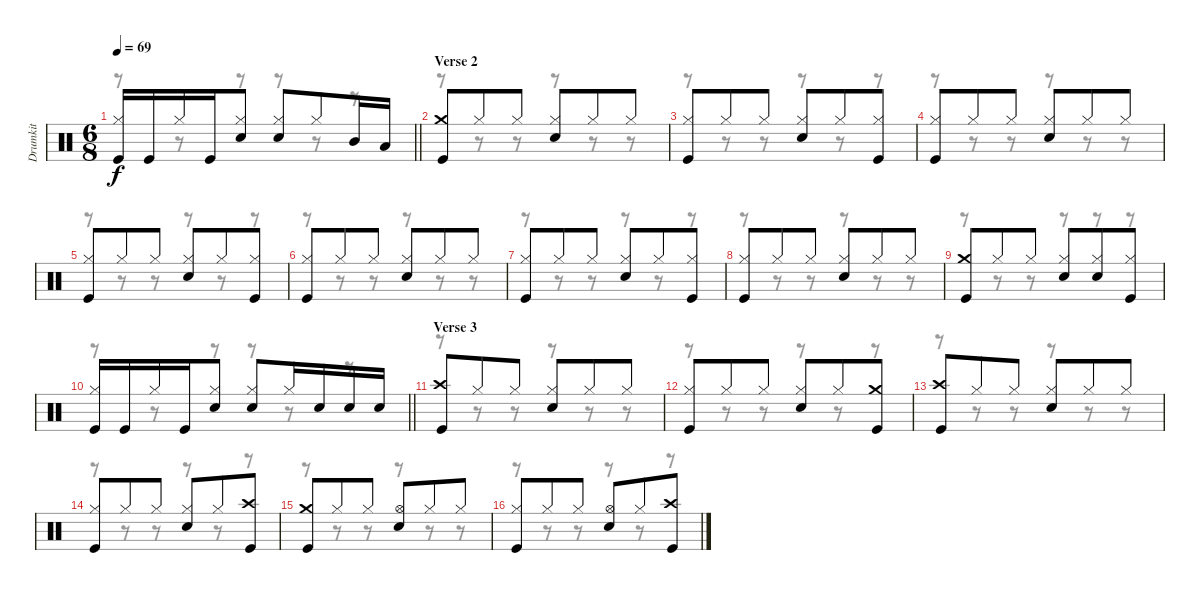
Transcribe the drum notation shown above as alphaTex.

\track ("Drumkit" "Drumkit") {instrument percussion}
\staff {score}
\articulation defaults
\voice
\ts (6 8)
\tempo 69
\clef neutral
\barLineRight lightlight
\ks c
("Hi-Hat (closed)" "Kick (hit)").16{dy f} "Kick (hit)".16 "Hi-Hat (closed)".16 "Kick (hit)".16 ("Hi-Hat (closed)" "Snare (hit) 2").8 ("Hi-Hat (closed)" "Snare (hit) 2").8 "Hi-Hat (closed)".8 "Mid Tom (hit)".16 "Low Tom (hit)".16 |
\section ("" "Verse 2")
("Crash medium (hit)" "Kick (hit)").8 "Hi-Hat (closed)".8 "Hi-Hat (closed)".8 ("Hi-Hat (closed)" "Snare (hit) 2").8 "Hi-Hat (closed)".8 "Hi-Hat (closed)".8 |
("Hi-Hat (closed)" "Kick (hit)").8 "Hi-Hat (closed)".8 "Hi-Hat (closed)".8 ("Hi-Hat (closed)" "Snare (hit) 2").8 "Hi-Hat (closed)".8 ("Hi-Hat (closed)" "Kick (hit)").8 |
("Hi-Hat (closed)" "Kick (hit)").8 "Hi-Hat (closed)".8 "Hi-Hat (closed)".8 ("Hi-Hat (closed)" "Snare (hit) 2").8 "Hi-Hat (closed)".8 "Hi-Hat (closed)".8 |
("Hi-Hat (closed)" "Kick (hit)").8 "Hi-Hat (closed)".8 "Hi-Hat (closed)".8 ("Hi-Hat (closed)" "Snare (hit) 2").8 "Hi-Hat (closed)".8 ("Hi-Hat (closed)" "Kick (hit)").8 |
("Hi-Hat (closed)" "Kick (hit)").8 "Hi-Hat (closed)".8 "Hi-Hat (closed)".8 ("Hi-Hat (closed)" "Snare (hit) 2").8 "Hi-Hat (closed)".8 "Hi-Hat (closed)".8 |
("Hi-Hat (closed)" "Kick (hit)").8 "Hi-Hat (closed)".8 "Hi-Hat (closed)".8 ("Hi-Hat (closed)" "Snare (hit) 2").8 "Hi-Hat (closed)".8 ("Hi-Hat (closed)" "Kick (hit)").8 |
("Hi-Hat (closed)" "Kick (hit)").8 "Hi-Hat (closed)".8 "Hi-Hat (closed)".8 ("Hi-Hat (closed)" "Snare (hit) 2").8 "Hi-Hat (closed)".8 "Hi-Hat (closed)".8 |
("Crash medium (hit)" "Kick (hit)").8 "Hi-Hat (closed)".8 "Hi-Hat (closed)".8 ("Hi-Hat (closed)" "Snare (hit) 2").8 ("Hi-Hat (closed)" "Snare (hit) 2").8 ("Hi-Hat (closed)" "Kick (hit)").8 |
\barLineRight lightlight
("Hi-Hat (closed)" "Kick (hit)").16 "Kick (hit)".16 "Hi-Hat (closed)".16 "Kick (hit)".16 ("Hi-Hat (closed)" "Snare (hit) 2").8 ("Hi-Hat (closed)" "Snare (hit) 2").8 "Hi-Hat (closed)".16 "Snare (hit) 2".16 "Snare (hit) 2".16 "Snare (hit) 2".16 |
\section ("" "Verse 3")
("Crash high (hit)" "Kick (hit)").8 "Hi-Hat (closed)".8 "Hi-Hat (closed)".8 ("Hi-Hat (closed)" "Snare (hit) 2").8 "Hi-Hat (closed)".8 "Hi-Hat (closed)".8 |
("Hi-Hat (closed)" "Kick (hit)").8 "Hi-Hat (closed)".8 "Hi-Hat (closed)".8 ("Hi-Hat (closed)" "Snare (hit) 2").8 "Hi-Hat (closed)".8 ("Crash medium (hit)" "Kick (hit)").8 |
("Crash high (hit)" "Kick (hit)").8 "Hi-Hat (closed)".8 "Hi-Hat (closed)".8 ("Hi-Hat (closed)" "Snare (hit) 2").8 "Hi-Hat (closed)".8 "Hi-Hat (closed)".8 |
("Hi-Hat (closed)" "Kick (hit)").8 "Hi-Hat (closed)".8 "Hi-Hat (closed)".8 ("Hi-Hat (closed)" "Snare (hit) 2").8 "Hi-Hat (closed)".8 ("Crash high (hit)" "Kick (hit)").8 |
("Crash medium (hit)" "Kick (hit)").8 "Hi-Hat (closed)".8 "Hi-Hat (closed)".8 ("Hi-Hat (open)" "Snare (hit) 2").8 "Hi-Hat (closed)".8 "Hi-Hat (closed)".8 |
("Hi-Hat (closed)" "Kick (hit)").8 "Hi-Hat (closed)".8 "Hi-Hat (closed)".8 ("Hi-Hat (open)" "Snare (hit) 2").8 "Hi-Hat (closed)".8 ("Crash high (hit)" "Kick (hit)").8
\voice
\clef neutral
\ottava regular
\simile none
\barLineRight lightlight
\ks c
r.8{dy f} r.8 r.8 r.8 r.8 r.8 |
r.8 r.8 r.8 r.8 r.8 r.8 |
r.8 r.8 r.8 r.8 r.8 r.8 |
r.8 r.8 r.8 r.8 r.8 r.8 |
r.8 r.8 r.8 r.8 r.8 r.8 |
r.8 r.8 r.8 r.8 r.8 r.8 |
r.8 r.8 r.8 r.8 r.8 r.8 |
r.8 r.8 r.8 r.8 r.8 r.8 |
r.8 r.8 r.8 r.8 r.8 r.8 |
\barLineRight lightlight
r.8 r.8 r.8 r.8 r.8 r.8 |
r.8 r.8 r.8 r.8 r.8 r.8 |
r.8 r.8 r.8 r.8 r.8 r.8 |
r.8 r.8 r.8 r.8 r.8 r.8 |
r.8 r.8 r.8 r.8 r.8 r.8 |
r.8 r.8 r.8 r.8 r.8 r.8 |
r.8 r.8 r.8 r.8 r.8 r.8
